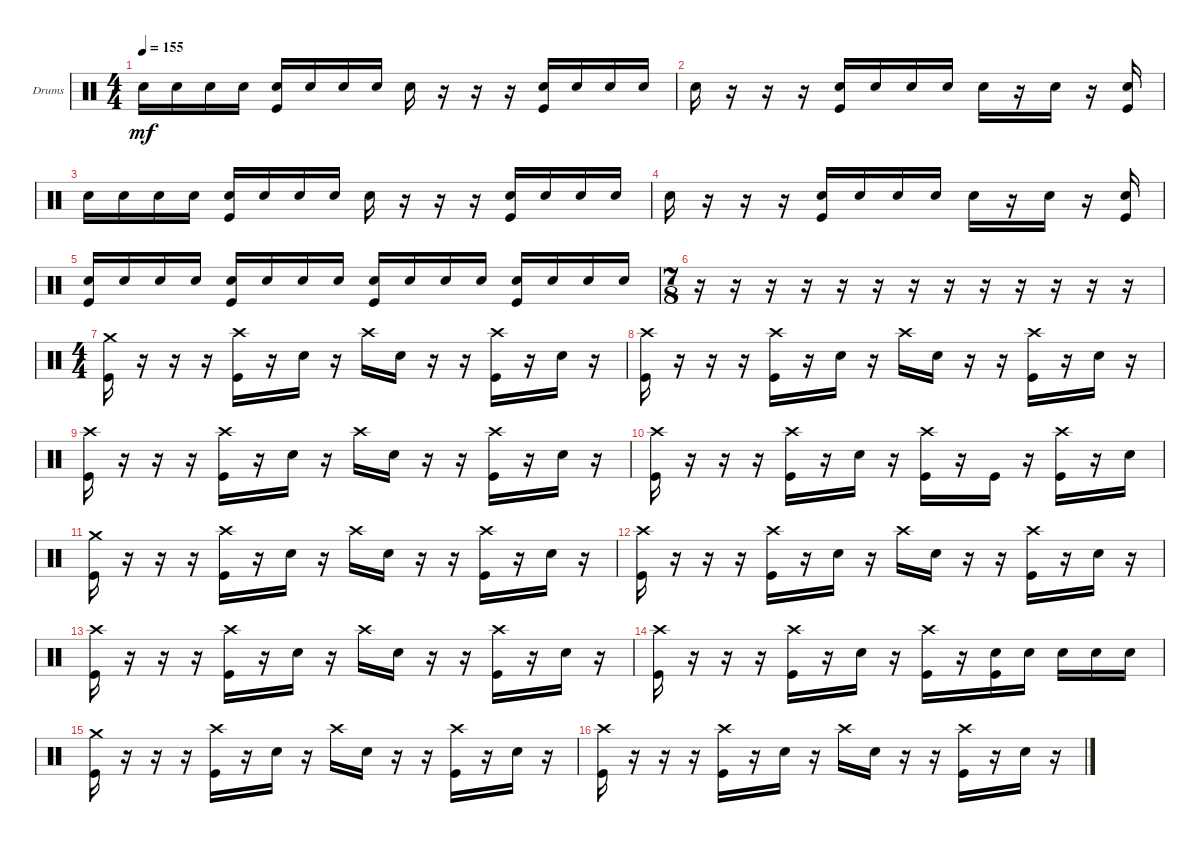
\defaultSystemsLayout 4
\bracketExtendMode groupsimilarinstruments
\firstSystemTrackNameOrientation horizontal
\otherSystemsTrackNameOrientation horizontal
\track ("Drumkit" "Drums") {instrument percussion}
\staff {score}
\articulation defaults
\ts (4 4)
\tempo 155
\clef neutral
\ks c "Snare (hit) 2".16{dy mf} "Snare (hit) 2".16 "Snare (hit) 2".16 "Snare (hit) 2".16
("Snare (hit) 2" "Kick (hit)").16 "Snare (hit) 2".16 "Snare (hit) 2".16 "Snare (hit) 2".16 "Snare (hit) 2".16 r.16 r.16 r.16 ("Snare (hit) 2" "Kick (hit)").16 "Snare (hit) 2".16 "Snare (hit) 2".16 "Snare (hit) 2".16 |
"Snare (hit) 2".16 r.16 r.16 r.16 ("Snare (hit) 2" "Kick (hit)").16 "Snare (hit) 2".16 "Snare (hit) 2".16 "Snare (hit) 2".16 "Snare (hit) 2".16 r.16 "Snare (hit) 2".16 r.16 ("Snare (hit) 2" "Kick (hit)").16 |
"Snare (hit) 2".16 "Snare (hit) 2".16 "Snare (hit) 2".16 "Snare (hit) 2".16 ("Snare (hit) 2" "Kick (hit)").16 "Snare (hit) 2".16 "Snare (hit) 2".16 "Snare (hit) 2".16 "Snare (hit) 2".16 r.16 r.16 r.16 ("Snare (hit) 2" "Kick (hit)").16 "Snare (hit) 2".16 "Snare (hit) 2".16 "Snare (hit) 2".16 |
"Snare (hit) 2".16 r.16 r.16 r.16 ("Snare (hit) 2" "Kick (hit)").16 "Snare (hit) 2".16 "Snare (hit) 2".16 "Snare (hit) 2".16 "Snare (hit) 2".16 r.16 "Snare (hit) 2".16 r.16 ("Snare (hit) 2" "Kick (hit)").16 |
("Snare (hit) 2" "Kick (hit)").16 "Snare (hit) 2".16 "Snare (hit) 2".16 "Snare (hit) 2".16 ("Snare (hit) 2" "Kick (hit)").16 "Snare (hit) 2".16 "Snare (hit) 2".16 "Snare (hit) 2".16 ("Snare (hit) 2" "Kick (hit)").16 "Snare (hit) 2".16 "Snare (hit) 2".16 "Snare (hit) 2".16 ("Snare (hit) 2" "Kick (hit)").16 "Snare (hit) 2".16 "Snare (hit) 2".16 "Snare (hit) 2".16 |
\ts (7 8)
r.16 r.16 r.16 r.16 r.16 r.16 r.16 r.16 r.16 r.16 r.16 r.16 r.16 |
\ts (4 4)
("Kick (hit)" "Crash medium (hit)").16 r.16 r.16 r.16 ("Kick (hit)" "Crash high (hit)").16 r.16 "Snare (hit) 2".16 r.16 "Crash high (hit)".16 "Snare (hit) 2".16 r.16 r.16 ("Crash high (hit)" "Kick (hit)").16 r.16 "Snare (hit) 2".16 r.16 |
("Kick (hit)" "Crash high (hit)").16 r.16 r.16 r.16 ("Kick (hit)" "Crash high (hit)").16 r.16 "Snare (hit) 2".16 r.16 "Crash high (hit)".16 "Snare (hit) 2".16 r.16 r.16 ("Crash high (hit)" "Kick (hit)").16 r.16 "Snare (hit) 2".16 r.16 |
("Kick (hit)" "Crash high (hit)").16 r.16 r.16 r.16 ("Kick (hit)" "Crash high (hit)").16 r.16 "Snare (hit) 2".16 r.16 "Crash high (hit)".16 "Snare (hit) 2".16 r.16 r.16 ("Crash high (hit)" "Kick (hit)").16 r.16 "Snare (hit) 2".16 r.16 |
("Kick (hit)" "Crash high (hit)").16 r.16 r.16 r.16 ("Kick (hit)" "Crash high (hit)").16 r.16 "Snare (hit) 2".16 r.16 ("Kick (hit)" "Crash high (hit)").16 r.16 "Kick (hit)".16 r.16 ("Kick (hit)" "Crash high (hit)").16 r.16 "Snare (hit) 2".16 |
("Kick (hit)" "Crash medium (hit)").16 r.16 r.16 r.16 ("Kick (hit)" "Crash high (hit)").16 r.16 "Snare (hit) 2".16 r.16 "Crash high (hit)".16 "Snare (hit) 2".16 r.16 r.16 ("Crash high (hit)" "Kick (hit)").16 r.16 "Snare (hit) 2".16 r.16 |
("Kick (hit)" "Crash high (hit)").16 r.16 r.16 r.16 ("Kick (hit)" "Crash high (hit)").16 r.16 "Snare (hit) 2".16 r.16 "Crash high (hit)".16 "Snare (hit) 2".16 r.16 r.16 ("Crash high (hit)" "Kick (hit)").16 r.16 "Snare (hit) 2".16 r.16 |
("Kick (hit)" "Crash high (hit)").16 r.16 r.16 r.16 ("Kick (hit)" "Crash high (hit)").16 r.16 "Snare (hit) 2".16 r.16 "Crash high (hit)".16 "Snare (hit) 2".16 r.16 r.16 ("Crash high (hit)" "Kick (hit)").16 r.16 "Snare (hit) 2".16 r.16 |
("Kick (hit)" "Crash high (hit)").16 r.16 r.16 r.16 ("Kick (hit)" "Crash high (hit)").16 r.16 "Snare (hit) 2".16 r.16 ("Kick (hit)" "Crash high (hit)").16 r.16 ("Kick (hit)" "Snare (hit) 2").16 "Snare (hit) 2".16 "Snare (hit) 2".16 "Snare (hit) 2".16 "Snare (hit) 2".16 |
("Kick (hit)" "Crash medium (hit)").16 r.16 r.16 r.16 ("Kick (hit)" "Crash high (hit)").16 r.16 "Snare (hit) 2".16 r.16 "Crash high (hit)".16 "Snare (hit) 2".16 r.16 r.16 ("Crash high (hit)" "Kick (hit)").16 r.16 "Snare (hit) 2".16 r.16 |
("Kick (hit)" "Crash high (hit)").16 r.16 r.16 r.16 ("Kick (hit)" "Crash high (hit)").16 r.16 "Snare (hit) 2".16 r.16 "Crash high (hit)".16 "Snare (hit) 2".16 r.16 r.16 ("Crash high (hit)" "Kick (hit)").16 r.16 "Snare (hit) 2".16 r.16
